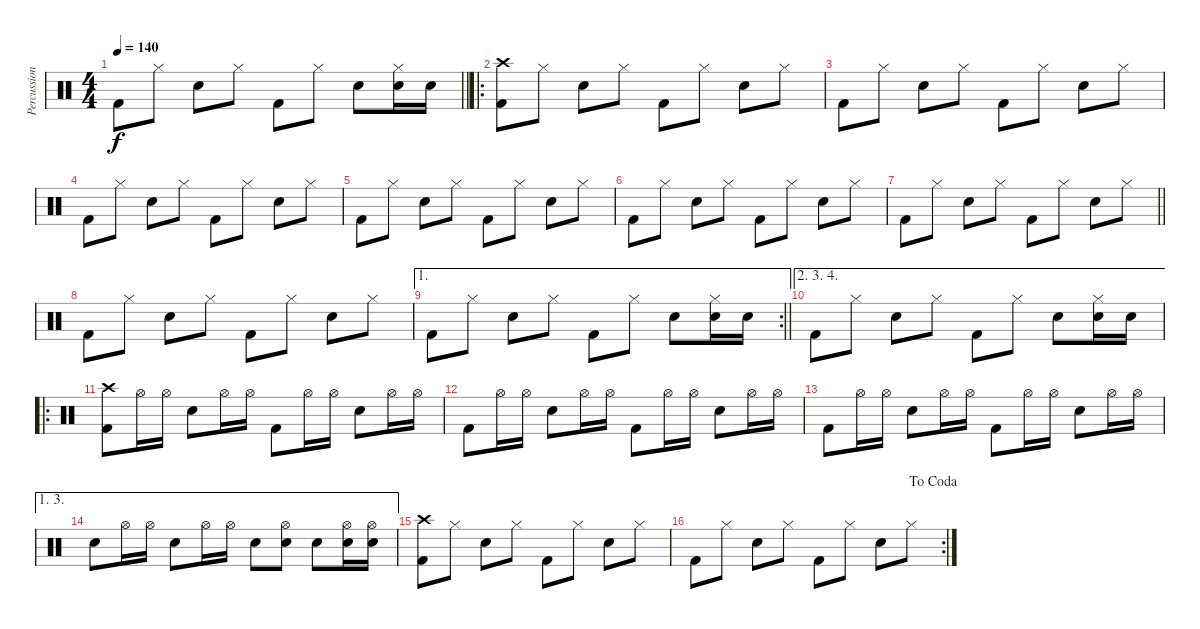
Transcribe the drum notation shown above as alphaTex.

\track ("Percussion" "Percussion") {instrument percussion}
\staff {score}
\articulation defaults
\ts (4 4)
\tempo 140
\clef neutral
\barLineRight lightlight
\ks c "Kick (hit) 2".8{dy f} "Hi-Hat (closed)".8 "Snare (hit) 2".8 "Hi-Hat (closed)".8 "Kick (hit) 2".8 "Hi-Hat (closed)".8 "Snare (hit) 2".8
("Hi-Hat (closed)" "Snare (hit) 2").16 "Snare (hit) 2".16 |
\ro
("Crash high (hit)" "Kick (hit) 2").8 "Hi-Hat (closed)".8 "Snare (hit) 2".8 "Hi-Hat (closed)".8 "Kick (hit) 2".8 "Hi-Hat (closed)".8 "Snare (hit) 2".8 "Hi-Hat (closed)".8 |
"Kick (hit) 2".8 "Hi-Hat (closed)".8 "Snare (hit) 2".8 "Hi-Hat (closed)".8 "Kick (hit) 2".8 "Hi-Hat (closed)".8 "Snare (hit) 2".8 "Hi-Hat (closed)".8 |
"Kick (hit) 2".8 "Hi-Hat (closed)".8 "Snare (hit) 2".8 "Hi-Hat (closed)".8 "Kick (hit) 2".8 "Hi-Hat (closed)".8 "Snare (hit) 2".8 "Hi-Hat (closed)".8 |
"Kick (hit) 2".8 "Hi-Hat (closed)".8 "Snare (hit) 2".8 "Hi-Hat (closed)".8 "Kick (hit) 2".8 "Hi-Hat (closed)".8 "Snare (hit) 2".8 "Hi-Hat (closed)".8 |
"Kick (hit) 2".8 "Hi-Hat (closed)".8 "Snare (hit) 2".8 "Hi-Hat (closed)".8 "Kick (hit) 2".8 "Hi-Hat (closed)".8 "Snare (hit) 2".8 "Hi-Hat (closed)".8 |
\barLineRight lightlight "Kick (hit) 2".8 "Hi-Hat (closed)".8 "Snare (hit) 2".8 "Hi-Hat (closed)".8 "Kick (hit) 2".8 "Hi-Hat (closed)".8 "Snare (hit) 2".8 "Hi-Hat (closed)".8
|
"Kick (hit) 2".8 "Hi-Hat (closed)".8 "Snare (hit) 2".8 "Hi-Hat (closed)".8 "Kick (hit) 2".8 "Hi-Hat (closed)".8 "Snare (hit) 2".8 "Hi-Hat (closed)".8 |
\ae 1
\rc 2
\barLineRight lightlight "Kick (hit) 2".8 "Hi-Hat (closed)".8 "Snare (hit) 2".8 "Hi-Hat (closed)".8 "Kick (hit) 2".8 "Hi-Hat (closed)".8 "Snare (hit) 2".8
("Hi-Hat (closed)" "Snare (hit) 2").16 "Snare (hit) 2".16 |
\ae (2 3 4)
"Kick (hit) 2".8 "Hi-Hat (closed)".8 "Snare (hit) 2".8 "Hi-Hat (closed)".8 "Kick (hit) 2".8 "Hi-Hat (closed)".8 "Snare (hit) 2".8 ("Hi-Hat (closed)" "Snare (hit) 2").16 "Snare (hit) 2".16 |
\ro
("Crash high (hit)" "Kick (hit) 2").8 "Hi-Hat (open)".16 "Hi-Hat (open)".16 "Snare (hit) 2".8 "Hi-Hat (open)".16 "Hi-Hat (open)".16 "Kick (hit) 2".8 "Hi-Hat (open)".16 "Hi-Hat (open)".16 "Snare (hit) 2".8 "Hi-Hat (open)".16 "Hi-Hat (open)".16 |
"Kick (hit) 2".8 "Hi-Hat (open)".16 "Hi-Hat (open)".16 "Snare (hit) 2".8 "Hi-Hat (open)".16 "Hi-Hat (open)".16 "Kick (hit) 2".8 "Hi-Hat (open)".16 "Hi-Hat (open)".16 "Snare (hit) 2".8 "Hi-Hat (open)".16 "Hi-Hat (open)".16 |
"Kick (hit) 2".8 "Hi-Hat (open)".16 "Hi-Hat (open)".16 "Snare (hit) 2".8 "Hi-Hat (open)".16 "Hi-Hat (open)".16 "Kick (hit) 2".8 "Hi-Hat (open)".16 "Hi-Hat (open)".16 "Snare (hit) 2".8 "Hi-Hat (open)".16 "Hi-Hat (open)".16 |
\ae (1 3)
"Snare (hit) 2".8 "Hi-Hat (open)".16 "Hi-Hat (open)".16 "Snare (hit) 2".8 "Hi-Hat (open)".16 "Hi-Hat (open)".16 "Snare (hit) 2".8 ("Snare (hit) 2" "Hi-Hat (open)").8 "Snare (hit) 2".8 ("Snare (hit) 2" "Hi-Hat (open)").16 ("Snare (hit) 2" "Hi-Hat (open)").16 |
("Crash high (hit)" "Kick (hit) 2").8 "Hi-Hat (closed)".8 "Snare (hit) 2".8 "Hi-Hat (closed)".8 "Kick (hit) 2".8 "Hi-Hat (closed)".8 "Snare (hit) 2".8 "Hi-Hat (closed)".8 |
\rc 2
\jump dacoda "Kick (hit) 2".8 "Hi-Hat (closed)".8 "Snare (hit) 2".8 "Hi-Hat (closed)".8 "Kick (hit) 2".8 "Hi-Hat (closed)".8 "Snare (hit) 2".8 "Hi-Hat (closed)".8
